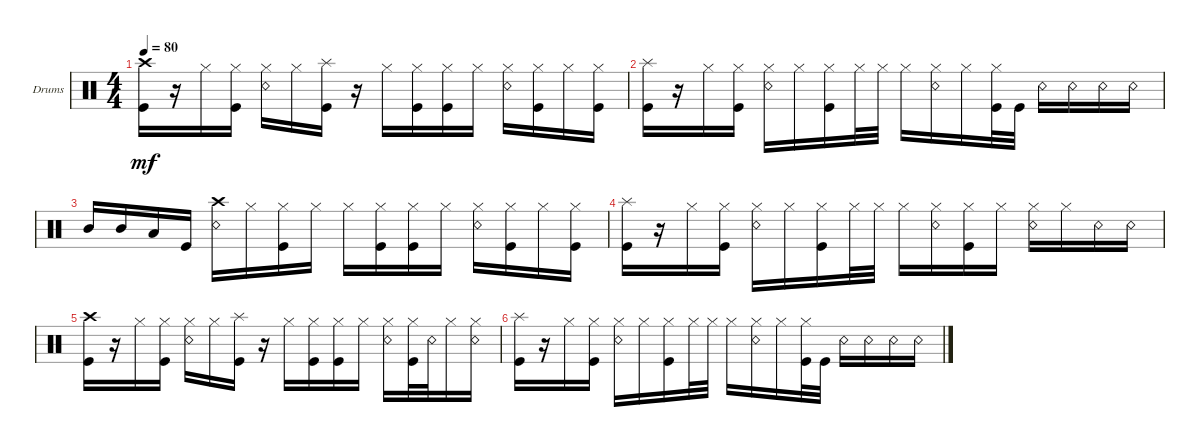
\defaultSystemsLayout 4
\bracketExtendMode groupsimilarinstruments
\firstSystemTrackNameOrientation horizontal
\otherSystemsTrackNameOrientation horizontal
\track ("Drumkit" "Drums") {instrument percussion}
\staff {score}
\articulation defaults
\ts (4 4)
\tempo 80
\clef neutral
\ks c
("Kick (hit)" "Crash high (hit)").16{dy mf} r.16 "Hi-Hat (closed)".16 ("Hi-Hat (closed)" "Kick (hit)").16 ("Hi-Hat (closed)" "Snare (rim shot)").16 "Hi-Hat (closed)".16 ("Kick (hit)" "Splash (hit)").16 r.16 "Hi-Hat (closed)".16 ("Hi-Hat (closed)" "Kick (hit)").16 ("Hi-Hat (closed)" "Kick (hit)").16 "Hi-Hat (closed)".16 ("Hi-Hat (closed)" "Snare (rim shot)").16 ("Hi-Hat (closed)" "Kick (hit)").16 "Hi-Hat (closed)".16 ("Hi-Hat (closed)" "Kick (hit)").16 |
("Kick (hit)" "Splash (hit)").16 r.16 "Hi-Hat (closed)".16 ("Hi-Hat (closed)" "Kick (hit)").16 ("Hi-Hat (closed)" "Snare (rim shot)").16 "Hi-Hat (closed)".16 ("Kick (hit)" "Hi-Hat (closed)").16 "Hi-Hat (closed)".32 "Hi-Hat (closed)".32 "Hi-Hat (closed)".16 ("Hi-Hat (closed)" "Snare (rim shot)").16 "Hi-Hat (closed)".16 ("Hi-Hat (closed)" "Kick (hit)").32 "Kick (hit)".32 "Snare (rim shot)".16 "Snare (rim shot)".16 "Snare (rim shot)".16 "Snare (rim shot)".16 |
"Mid Tom (hit)".16 "Mid Tom (hit)".16 "Low Tom (hit)".16 "Kick (hit)".16 ("Snare (rim shot)" "Crash high (hit)").16 "Hi-Hat (closed)".16 ("Hi-Hat (closed)" "Kick (hit)").16 "Hi-Hat (closed)".16 "Hi-Hat (closed)".16 ("Hi-Hat (closed)" "Kick (hit)").16 ("Hi-Hat (closed)" "Kick (hit)").16 "Hi-Hat (closed)".16 ("Hi-Hat (closed)" "Snare (rim shot)").16 ("Hi-Hat (closed)" "Kick (hit)").16 "Hi-Hat (closed)".16 ("Hi-Hat (closed)" "Kick (hit)").16 |
("Kick (hit)" "Splash (hit)").16 r.16 "Hi-Hat (closed)".16 ("Hi-Hat (closed)" "Kick (hit)").16 ("Hi-Hat (closed)" "Snare (rim shot)").16 "Hi-Hat (closed)".16 ("Hi-Hat (closed)" "Kick (hit)").16 "Hi-Hat (closed)".32 "Hi-Hat (closed)".32 "Hi-Hat (closed)".16 ("Hi-Hat (closed)" "Snare (rim shot)").16 ("Hi-Hat (closed)" "Kick (hit)").16 "Hi-Hat (closed)".16 ("Hi-Hat (closed)" "Snare (rim shot)").16 "Hi-Hat (closed)".16 "Snare (rim shot)".16 "Snare (rim shot)".16 |
("Kick (hit)" "Crash high (hit)").16 r.16 "Hi-Hat (closed)".16 ("Hi-Hat (closed)" "Kick (hit)").16 ("Hi-Hat (closed)" "Snare (rim shot)").16 "Hi-Hat (closed)".16 ("Kick (hit)" "Splash (hit)").16 r.16 "Hi-Hat (closed)".16 ("Hi-Hat (closed)" "Kick (hit)").16 ("Hi-Hat (closed)" "Kick (hit)").16 "Hi-Hat (closed)".16 ("Hi-Hat (closed)" "Snare (rim shot)").16 ("Kick (hit)" "Hi-Hat (closed)").32 "Snare (rim shot)".32 "Hi-Hat (closed)".16 ("Hi-Hat (closed)" "Snare (rim shot)").16 |
("Kick (hit)" "Splash (hit)").16 r.16 "Hi-Hat (closed)".16 ("Hi-Hat (closed)" "Kick (hit)").16 ("Hi-Hat (closed)" "Snare (rim shot)").16 "Hi-Hat (closed)".16 ("Kick (hit)" "Hi-Hat (closed)").16 "Hi-Hat (closed)".32 "Hi-Hat (closed)".32 "Hi-Hat (closed)".16 ("Hi-Hat (closed)" "Snare (rim shot)").16 "Hi-Hat (closed)".16 ("Hi-Hat (closed)" "Kick (hit)").32 "Kick (hit)".32 "Snare (rim shot)".16 "Snare (rim shot)".16 "Snare (rim shot)".16 "Snare (rim shot)".16
